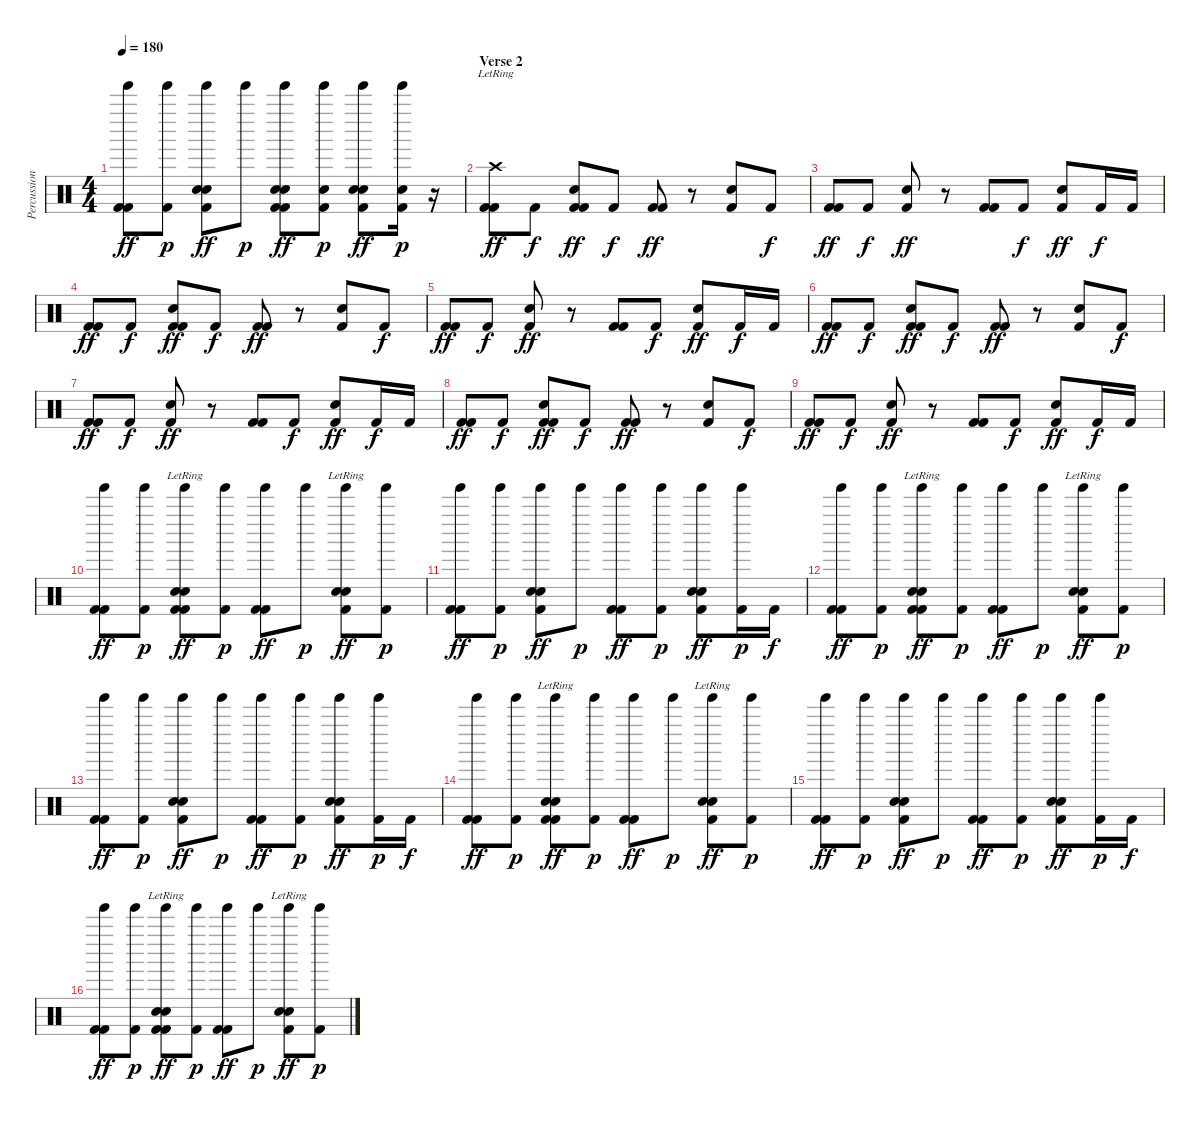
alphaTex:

\track ("Percussion" "Percussion") {instrument percussion}
\staff {score}
\articulation defaults
\ts (4 4)
\tempo 180
\clef neutral
\ks c
("Tinkle Bell (hit)" "Kick (hit) 2" "Kick (hit) 2").8{dy ff} ("Tinkle Bell (hit)" "Kick (hit) 2").8{dy p} ("Tinkle Bell (hit)" "Snare (hit) 2" "Electric Snare (hit)" "Kick (hit) 2").8{dy ff} "Tinkle Bell (hit)".8{dy p} ("Tinkle Bell (hit)" "Snare (hit) 2" "Electric Snare (hit)" "Kick (hit) 2" "Kick (hit) 2").8{dy ff} ("Tinkle Bell (hit)" "Electric Snare (hit)" "Kick (hit) 2").8{dy p} ("Tinkle Bell (hit)" "Snare (hit) 2" "Electric Snare (hit)" "Kick (hit) 2").8{dy ff} ("Tinkle Bell (hit)" "Electric Snare (hit)" "Kick (hit) 2").16{dy p} r.16 |
\section ("" "Verse 2")
("Crash high (hit)"{lr} "Kick (hit) 2" "Kick (hit) 2").8{dy ff} "Kick (hit) 2".8{dy f} ("Electric Snare (hit)" "Kick (hit) 2" "Kick (hit) 2").8{dy ff} "Kick (hit) 2".8{dy f} ("Kick (hit) 2" "Kick (hit) 2").8{dy ff} r.8 ("Electric Snare (hit)" "Kick (hit) 2").8 "Kick (hit) 2".8{dy f} |
("Kick (hit) 2" "Kick (hit) 2").8{dy ff} "Kick (hit) 2".8{dy f} ("Electric Snare (hit)" "Kick (hit) 2").8{dy ff} r.8 ("Kick (hit) 2" "Kick (hit) 2").8 "Kick (hit) 2".8{dy f} ("Electric Snare (hit)" "Kick (hit) 2").8{dy ff} "Kick (hit) 2".16{dy f} "Kick (hit) 2".16 |
("Kick (hit) 2" "Kick (hit) 2").8{dy ff} "Kick (hit) 2".8{dy f} ("Electric Snare (hit)" "Kick (hit) 2" "Kick (hit) 2").8{dy ff} "Kick (hit) 2".8{dy f} ("Kick (hit) 2" "Kick (hit) 2").8{dy ff} r.8 ("Electric Snare (hit)" "Kick (hit) 2").8 "Kick (hit) 2".8{dy f} |
("Kick (hit) 2" "Kick (hit) 2").8{dy ff} "Kick (hit) 2".8{dy f} ("Electric Snare (hit)" "Kick (hit) 2").8{dy ff} r.8 ("Kick (hit) 2" "Kick (hit) 2").8 "Kick (hit) 2".8{dy f} ("Electric Snare (hit)" "Kick (hit) 2").8{dy ff} "Kick (hit) 2".16{dy f} "Kick (hit) 2".16 |
("Kick (hit) 2" "Kick (hit) 2").8{dy ff} "Kick (hit) 2".8{dy f} ("Electric Snare (hit)" "Kick (hit) 2" "Kick (hit) 2").8{dy ff} "Kick (hit) 2".8{dy f} ("Kick (hit) 2" "Kick (hit) 2").8{dy ff} r.8 ("Electric Snare (hit)" "Kick (hit) 2").8 "Kick (hit) 2".8{dy f} |
("Kick (hit) 2" "Kick (hit) 2").8{dy ff} "Kick (hit) 2".8{dy f} ("Electric Snare (hit)" "Kick (hit) 2").8{dy ff} r.8 ("Kick (hit) 2" "Kick (hit) 2").8 "Kick (hit) 2".8{dy f} ("Electric Snare (hit)" "Kick (hit) 2").8{dy ff} "Kick (hit) 2".16{dy f} "Kick (hit) 2".16 |
("Kick (hit) 2" "Kick (hit) 2").8{dy ff} "Kick (hit) 2".8{dy f} ("Electric Snare (hit)" "Kick (hit) 2" "Kick (hit) 2").8{dy ff} "Kick (hit) 2".8{dy f} ("Kick (hit) 2" "Kick (hit) 2").8{dy ff} r.8 ("Electric Snare (hit)" "Kick (hit) 2").8 "Kick (hit) 2".8{dy f} |
("Kick (hit) 2" "Kick (hit) 2").8{dy ff} "Kick (hit) 2".8{dy f} ("Electric Snare (hit)" "Kick (hit) 2").8{dy ff} r.8 ("Kick (hit) 2" "Kick (hit) 2").8 "Kick (hit) 2".8{dy f} ("Electric Snare (hit)" "Kick (hit) 2").8{dy ff} "Kick (hit) 2".16{dy f} "Kick (hit) 2".16 |
("Tinkle Bell (hit)" "Kick (hit) 2" "Kick (hit) 2").8{dy ff} ("Tinkle Bell (hit)" "Kick (hit) 2").8{dy p} ("Tinkle Bell (hit)" "Snare (hit) 2"{lr} "Electric Snare (hit)" "Kick (hit) 2" "Kick (hit) 2").8{dy ff} ("Tinkle Bell (hit)" "Kick (hit) 2").8{dy p} ("Tinkle Bell (hit)" "Kick (hit) 2" "Kick (hit) 2").8{dy ff} "Tinkle Bell (hit)".8{dy p} ("Tinkle Bell (hit)" "Snare (hit) 2"{lr} "Electric Snare (hit)" "Kick (hit) 2").8{dy ff} ("Tinkle Bell (hit)" "Kick (hit) 2").8{dy p} |
("Tinkle Bell (hit)" "Kick (hit) 2" "Kick (hit) 2").8{dy ff} ("Tinkle Bell (hit)" "Kick (hit) 2").8{dy p} ("Tinkle Bell (hit)" "Snare (hit) 2" "Electric Snare (hit)" "Kick (hit) 2").8{dy ff} "Tinkle Bell (hit)".8{dy p} ("Tinkle Bell (hit)" "Kick (hit) 2" "Kick (hit) 2").8{dy ff} ("Tinkle Bell (hit)" "Kick (hit) 2").8{dy p} ("Tinkle Bell (hit)" "Snare (hit) 2" "Electric Snare (hit)" "Kick (hit) 2").8{dy ff} ("Tinkle Bell (hit)" "Kick (hit) 2").16{dy p} "Kick (hit) 2".16{dy f} |
("Tinkle Bell (hit)" "Kick (hit) 2" "Kick (hit) 2").8{dy ff} ("Tinkle Bell (hit)" "Kick (hit) 2").8{dy p} ("Tinkle Bell (hit)" "Snare (hit) 2"{lr} "Electric Snare (hit)" "Kick (hit) 2" "Kick (hit) 2").8{dy ff} ("Tinkle Bell (hit)" "Kick (hit) 2").8{dy p} ("Tinkle Bell (hit)" "Kick (hit) 2" "Kick (hit) 2").8{dy ff} "Tinkle Bell (hit)".8{dy p} ("Tinkle Bell (hit)" "Snare (hit) 2"{lr} "Electric Snare (hit)" "Kick (hit) 2").8{dy ff} ("Tinkle Bell (hit)" "Kick (hit) 2").8{dy p} |
("Tinkle Bell (hit)" "Kick (hit) 2" "Kick (hit) 2").8{dy ff} ("Tinkle Bell (hit)" "Kick (hit) 2").8{dy p} ("Tinkle Bell (hit)" "Snare (hit) 2" "Electric Snare (hit)" "Kick (hit) 2").8{dy ff} "Tinkle Bell (hit)".8{dy p} ("Tinkle Bell (hit)" "Kick (hit) 2" "Kick (hit) 2").8{dy ff} ("Tinkle Bell (hit)" "Kick (hit) 2").8{dy p} ("Tinkle Bell (hit)" "Snare (hit) 2" "Electric Snare (hit)" "Kick (hit) 2").8{dy ff} ("Tinkle Bell (hit)" "Kick (hit) 2").16{dy p} "Kick (hit) 2".16{dy f} |
("Tinkle Bell (hit)" "Kick (hit) 2" "Kick (hit) 2").8{dy ff} ("Tinkle Bell (hit)" "Kick (hit) 2").8{dy p} ("Tinkle Bell (hit)" "Snare (hit) 2"{lr} "Electric Snare (hit)" "Kick (hit) 2" "Kick (hit) 2").8{dy ff} ("Tinkle Bell (hit)" "Kick (hit) 2").8{dy p} ("Tinkle Bell (hit)" "Kick (hit) 2" "Kick (hit) 2").8{dy ff} "Tinkle Bell (hit)".8{dy p} ("Tinkle Bell (hit)" "Snare (hit) 2"{lr} "Electric Snare (hit)" "Kick (hit) 2").8{dy ff} ("Tinkle Bell (hit)" "Kick (hit) 2").8{dy p} |
("Tinkle Bell (hit)" "Kick (hit) 2" "Kick (hit) 2").8{dy ff} ("Tinkle Bell (hit)" "Kick (hit) 2").8{dy p} ("Tinkle Bell (hit)" "Snare (hit) 2" "Electric Snare (hit)" "Kick (hit) 2").8{dy ff} "Tinkle Bell (hit)".8{dy p} ("Tinkle Bell (hit)" "Kick (hit) 2" "Kick (hit) 2").8{dy ff} ("Tinkle Bell (hit)" "Kick (hit) 2").8{dy p} ("Tinkle Bell (hit)" "Snare (hit) 2" "Electric Snare (hit)" "Kick (hit) 2").8{dy ff} ("Tinkle Bell (hit)" "Kick (hit) 2").16{dy p} "Kick (hit) 2".16{dy f} |
("Tinkle Bell (hit)" "Kick (hit) 2" "Kick (hit) 2").8{dy ff} ("Tinkle Bell (hit)" "Kick (hit) 2").8{dy p} ("Tinkle Bell (hit)" "Snare (hit) 2"{lr} "Electric Snare (hit)" "Kick (hit) 2" "Kick (hit) 2").8{dy ff} ("Tinkle Bell (hit)" "Kick (hit) 2").8{dy p} ("Tinkle Bell (hit)" "Kick (hit) 2" "Kick (hit) 2").8{dy ff} "Tinkle Bell (hit)".8{dy p} ("Tinkle Bell (hit)" "Snare (hit) 2"{lr} "Electric Snare (hit)" "Kick (hit) 2").8{dy ff} ("Tinkle Bell (hit)" "Kick (hit) 2").8{dy p}
